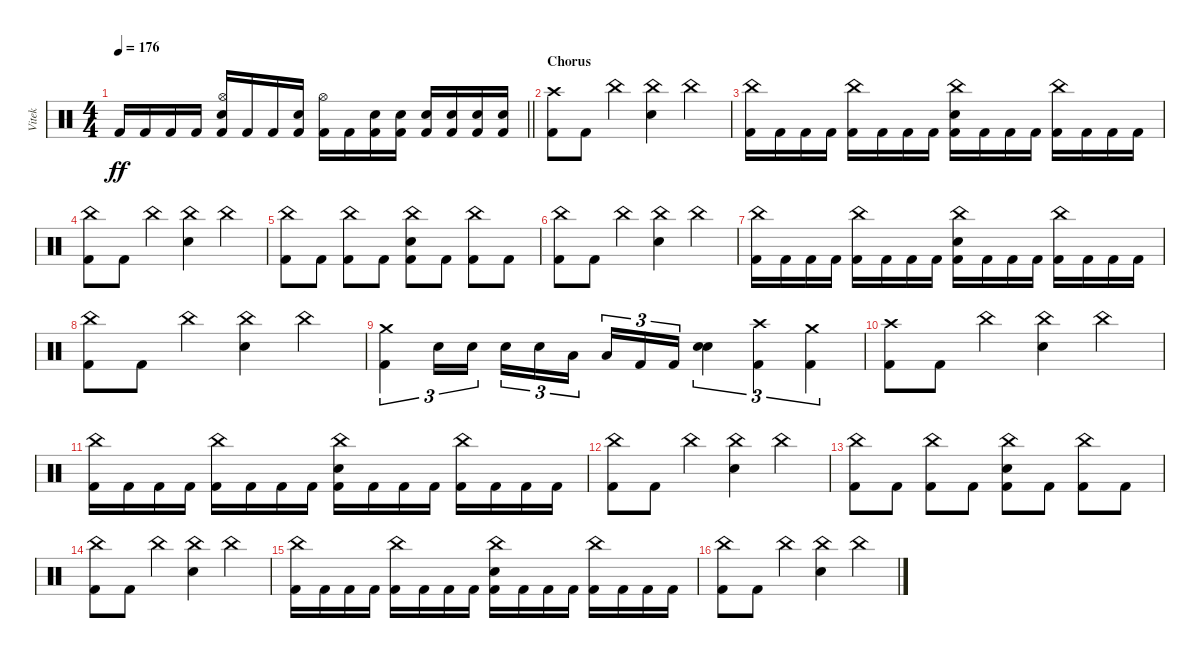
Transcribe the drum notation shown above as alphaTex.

\track ("Vitek" "Vitek") {instrument percussion}
\staff {score}
\articulation defaults
\ts (4 4)
\tempo 176
\clef neutral
\barLineRight lightlight
\ks c "Kick (hit) 2".16{dy ff} "Kick (hit) 2".16 "Kick (hit) 2".16 "Kick (hit) 2".16
("Hi-Hat (open)" "Electric Snare (hit)" "Kick (hit) 2").16 "Kick (hit) 2".16 "Kick (hit) 2".16 ("Electric Snare (hit)" "Kick (hit) 2").16 ("Hi-Hat (open)" "Kick (hit) 2").16 "Kick (hit) 2".16 ("Electric Snare (hit)" "Kick (hit) 2").16 ("Electric Snare (hit)" "Kick (hit) 2").16 ("Electric Snare (hit)" "Kick (hit) 2").16 ("Electric Snare (hit)" "Kick (hit) 2").16 ("Electric Snare (hit)" "Kick (hit) 2").16 ("Electric Snare (hit)" "Kick (hit) 2").16 |
\section ("" "Chorus")
("Crash high (hit)" "Kick (hit) 2").8 "Kick (hit) 2".8 "China (hit)".4 ("China (hit)" "Electric Snare (hit)").4 "China (hit)".4 |
("China (hit)" "Kick (hit) 2").16 "Kick (hit) 2".16 "Kick (hit) 2".16 "Kick (hit) 2".16 ("China (hit)" "Kick (hit) 2").16 "Kick (hit) 2".16 "Kick (hit) 2".16 "Kick (hit) 2".16 ("China (hit)" "Electric Snare (hit)" "Kick (hit) 2").16 "Kick (hit) 2".16 "Kick (hit) 2".16 "Kick (hit) 2".16 ("China (hit)" "Kick (hit) 2").16 "Kick (hit) 2".16 "Kick (hit) 2".16 "Kick (hit) 2".16 |
("China (hit)" "Kick (hit) 2").8 "Kick (hit) 2".8 "China (hit)".4 ("China (hit)" "Electric Snare (hit)").4 "China (hit)".4 |
("China (hit)" "Kick (hit) 2").8 "Kick (hit) 2".8 ("China (hit)" "Kick (hit) 2").8 "Kick (hit) 2".8 ("China (hit)" "Electric Snare (hit)" "Kick (hit) 2").8 "Kick (hit) 2".8 ("China (hit)" "Kick (hit) 2").8 "Kick (hit) 2".8 |
("China (hit)" "Kick (hit) 2").8 "Kick (hit) 2".8 "China (hit)".4 ("China (hit)" "Electric Snare (hit)").4 "China (hit)".4 |
("China (hit)" "Kick (hit) 2").16 "Kick (hit) 2".16 "Kick (hit) 2".16 "Kick (hit) 2".16 ("China (hit)" "Kick (hit) 2").16 "Kick (hit) 2".16 "Kick (hit) 2".16 "Kick (hit) 2".16 ("China (hit)" "Electric Snare (hit)" "Kick (hit) 2").16 "Kick (hit) 2".16 "Kick (hit) 2".16 "Kick (hit) 2".16 ("China (hit)" "Kick (hit) 2").16 "Kick (hit) 2".16 "Kick (hit) 2".16 "Kick (hit) 2".16 |
("China (hit)" "Kick (hit) 2").8 "Kick (hit) 2".8 "China (hit)".4 ("China (hit)" "Electric Snare (hit)").4 "China (hit)".4 |
("Crash medium (hit)" "Kick (hit) 2").4{tu (3 2)} "Electric Snare (hit)".16{tu (3 2)} "Electric Snare (hit)".16{tu (3 2)} "Electric Snare (hit)".16{tu (3 2)} "Electric Snare (hit)".16{tu (3 2)} "Low Tom (hit)".16{tu (3 2) beam splitsecondary} "Low Tom (hit)".16{tu (3 2)} "Kick (hit) 2".16{tu (3 2)} "Kick (hit) 2".16{tu (3 2)} ("Electric Snare (hit)" "Electric Snare (hit)").4{tu (3 2)} ("Crash high (hit)" "Kick (hit) 2").4{tu (3 2)} ("Crash medium (hit)" "Kick (hit) 2").4{tu (3 2)} |
("Crash high (hit)" "Kick (hit) 2").8 "Kick (hit) 2".8 "China (hit)".4 ("China (hit)" "Electric Snare (hit)").4 "China (hit)".4 |
("China (hit)" "Kick (hit) 2").16 "Kick (hit) 2".16 "Kick (hit) 2".16 "Kick (hit) 2".16 ("China (hit)" "Kick (hit) 2").16 "Kick (hit) 2".16 "Kick (hit) 2".16 "Kick (hit) 2".16 ("China (hit)" "Electric Snare (hit)" "Kick (hit) 2").16 "Kick (hit) 2".16 "Kick (hit) 2".16 "Kick (hit) 2".16 ("China (hit)" "Kick (hit) 2").16 "Kick (hit) 2".16 "Kick (hit) 2".16 "Kick (hit) 2".16 |
("China (hit)" "Kick (hit) 2").8 "Kick (hit) 2".8 "China (hit)".4 ("China (hit)" "Electric Snare (hit)").4 "China (hit)".4 |
("China (hit)" "Kick (hit) 2").8 "Kick (hit) 2".8 ("China (hit)" "Kick (hit) 2").8 "Kick (hit) 2".8 ("China (hit)" "Electric Snare (hit)" "Kick (hit) 2").8 "Kick (hit) 2".8 ("China (hit)" "Kick (hit) 2").8 "Kick (hit) 2".8 |
("China (hit)" "Kick (hit) 2").8 "Kick (hit) 2".8 "China (hit)".4 ("China (hit)" "Electric Snare (hit)").4 "China (hit)".4 |
("China (hit)" "Kick (hit) 2").16 "Kick (hit) 2".16 "Kick (hit) 2".16 "Kick (hit) 2".16 ("China (hit)" "Kick (hit) 2").16 "Kick (hit) 2".16 "Kick (hit) 2".16 "Kick (hit) 2".16 ("China (hit)" "Electric Snare (hit)" "Kick (hit) 2").16 "Kick (hit) 2".16 "Kick (hit) 2".16 "Kick (hit) 2".16 ("China (hit)" "Kick (hit) 2").16 "Kick (hit) 2".16 "Kick (hit) 2".16 "Kick (hit) 2".16 |
("China (hit)" "Kick (hit) 2").8 "Kick (hit) 2".8 "China (hit)".4 ("China (hit)" "Electric Snare (hit)").4 "China (hit)".4
